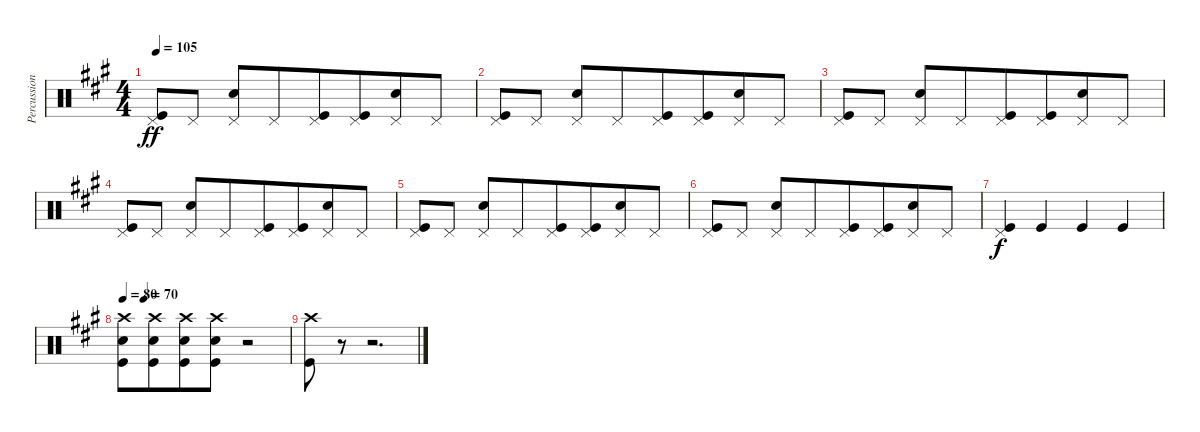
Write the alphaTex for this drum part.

\track ("Percussion" "Percussion") {instrument percussion}
\staff {score}
\articulation defaults
\ts (4 4)
\tempo 105
\clef neutral
\ks a
("Kick (hit)" "Pedal Hi-Hat (hit)").8{dy ff beam merge} "Pedal Hi-Hat (hit)".8 ("Electric Snare (hit)" "Pedal Hi-Hat (hit)").8 "Pedal Hi-Hat (hit)".8{beam merge} ("Kick (hit)" "Pedal Hi-Hat (hit)").8{beam merge} ("Kick (hit)" "Pedal Hi-Hat (hit)").8{beam merge} ("Electric Snare (hit)" "Pedal Hi-Hat (hit)").8{beam merge} "Pedal Hi-Hat (hit)".8 |
("Kick (hit)" "Pedal Hi-Hat (hit)").8{beam merge} "Pedal Hi-Hat (hit)".8 ("Electric Snare (hit)" "Pedal Hi-Hat (hit)").8 "Pedal Hi-Hat (hit)".8{beam merge} ("Kick (hit)" "Pedal Hi-Hat (hit)").8{beam merge} ("Kick (hit)" "Pedal Hi-Hat (hit)").8{beam merge} ("Electric Snare (hit)" "Pedal Hi-Hat (hit)").8{beam merge} "Pedal Hi-Hat (hit)".8 |
("Kick (hit)" "Pedal Hi-Hat (hit)").8{beam merge} "Pedal Hi-Hat (hit)".8 ("Electric Snare (hit)" "Pedal Hi-Hat (hit)").8 "Pedal Hi-Hat (hit)".8{beam merge} ("Kick (hit)" "Pedal Hi-Hat (hit)").8{beam merge} ("Kick (hit)" "Pedal Hi-Hat (hit)").8{beam merge} ("Electric Snare (hit)" "Pedal Hi-Hat (hit)").8{beam merge} "Pedal Hi-Hat (hit)".8 |
("Kick (hit)" "Pedal Hi-Hat (hit)").8{beam merge} "Pedal Hi-Hat (hit)".8 ("Electric Snare (hit)" "Pedal Hi-Hat (hit)").8 "Pedal Hi-Hat (hit)".8{beam merge} ("Kick (hit)" "Pedal Hi-Hat (hit)").8{beam merge} ("Kick (hit)" "Pedal Hi-Hat (hit)").8{beam merge} ("Electric Snare (hit)" "Pedal Hi-Hat (hit)").8{beam merge} "Pedal Hi-Hat (hit)".8 |
("Kick (hit)" "Pedal Hi-Hat (hit)").8{beam merge} "Pedal Hi-Hat (hit)".8 ("Electric Snare (hit)" "Pedal Hi-Hat (hit)").8 "Pedal Hi-Hat (hit)".8{beam merge} ("Kick (hit)" "Pedal Hi-Hat (hit)").8{beam merge} ("Kick (hit)" "Pedal Hi-Hat (hit)").8{beam merge} ("Electric Snare (hit)" "Pedal Hi-Hat (hit)").8{beam merge} "Pedal Hi-Hat (hit)".8 |
("Kick (hit)" "Pedal Hi-Hat (hit)").8{beam merge} "Pedal Hi-Hat (hit)".8 ("Electric Snare (hit)" "Pedal Hi-Hat (hit)").8 "Pedal Hi-Hat (hit)".8{beam merge} ("Kick (hit)" "Pedal Hi-Hat (hit)").8{beam merge} ("Kick (hit)" "Pedal Hi-Hat (hit)").8{beam merge} ("Electric Snare (hit)" "Pedal Hi-Hat (hit)").8{beam merge} "Pedal Hi-Hat (hit)".8 |
("Kick (hit)" "Pedal Hi-Hat (hit)").4{dy f beam merge} "Kick (hit)".4 "Kick (hit)".4{beam merge} "Kick (hit)".4 |
\tempo 80
\tempo (70 0.125)
("Kick (hit)" "Crash high (hit)" "Electric Snare (hit)").8 ("Kick (hit)" "Electric Snare (hit)" "Crash high (hit)").8{beam merge} ("Kick (hit)" "Electric Snare (hit)" "Crash high (hit)").8{beam merge} ("Kick (hit)" "Electric Snare (hit)" "Crash high (hit)").8 r.2 |
("Kick (hit)" "Crash high (hit)").8{beam merge} r.8 r.2{d}
